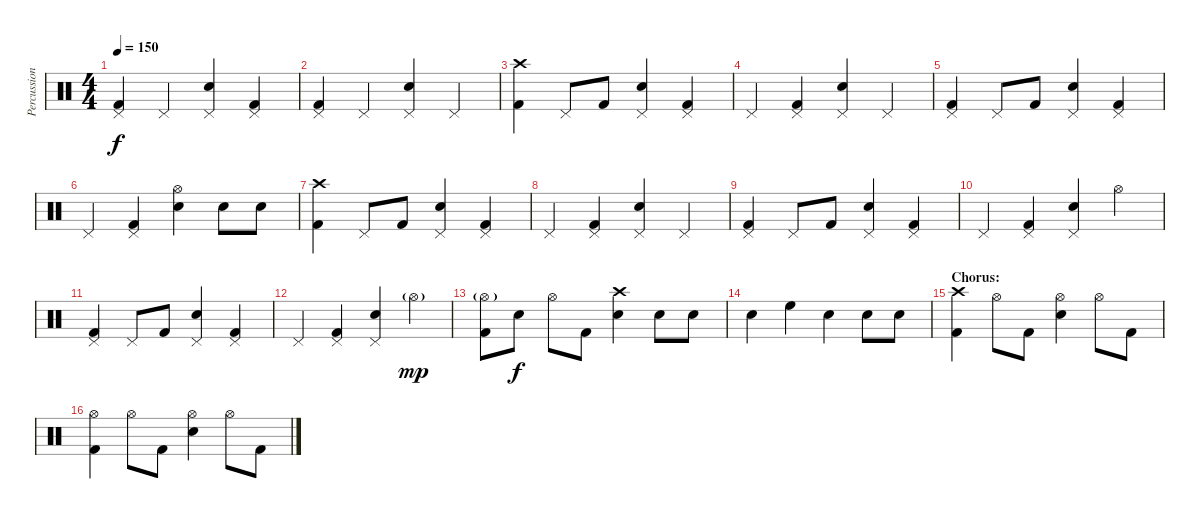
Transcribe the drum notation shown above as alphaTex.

\track ("Percussion" "Percussion") {instrument percussion}
\staff {score}
\articulation defaults
\ts (4 4)
\tempo 150
\clef neutral
\ks c
("Pedal Hi-Hat (hit)" "Kick (hit) 2").4{dy f} "Pedal Hi-Hat (hit)".4 ("Pedal Hi-Hat (hit)" "Electric Snare (hit)").4 ("Pedal Hi-Hat (hit)" "Kick (hit) 2").4 |
("Pedal Hi-Hat (hit)" "Kick (hit) 2").4 "Pedal Hi-Hat (hit)".4 ("Pedal Hi-Hat (hit)" "Electric Snare (hit)").4 "Pedal Hi-Hat (hit)".4 |
("Crash high (hit)" "Kick (hit) 2").4 "Pedal Hi-Hat (hit)".8 "Kick (hit) 2".8 ("Pedal Hi-Hat (hit)" "Electric Snare (hit)").4 ("Pedal Hi-Hat (hit)" "Kick (hit) 2").4 |
"Pedal Hi-Hat (hit)".4 ("Pedal Hi-Hat (hit)" "Kick (hit) 2").4 ("Pedal Hi-Hat (hit)" "Electric Snare (hit)").4 "Pedal Hi-Hat (hit)".4 |
("Pedal Hi-Hat (hit)" "Kick (hit) 2").4 "Pedal Hi-Hat (hit)".8 "Kick (hit) 2".8 ("Pedal Hi-Hat (hit)" "Electric Snare (hit)").4 ("Pedal Hi-Hat (hit)" "Kick (hit) 2").4 |
"Pedal Hi-Hat (hit)".4 ("Pedal Hi-Hat (hit)" "Kick (hit) 2").4 ("Hi-Hat (open)" "Electric Snare (hit)").4 "Electric Snare (hit)".8 "Electric Snare (hit)".8 |
("Crash high (hit)" "Kick (hit) 2").4 "Pedal Hi-Hat (hit)".8 "Kick (hit) 2".8 ("Pedal Hi-Hat (hit)" "Electric Snare (hit)").4 ("Pedal Hi-Hat (hit)" "Kick (hit) 2").4 |
"Pedal Hi-Hat (hit)".4 ("Pedal Hi-Hat (hit)" "Kick (hit) 2").4 ("Pedal Hi-Hat (hit)" "Electric Snare (hit)").4 "Pedal Hi-Hat (hit)".4 |
("Pedal Hi-Hat (hit)" "Kick (hit) 2").4 "Pedal Hi-Hat (hit)".8 "Kick (hit) 2".8 ("Pedal Hi-Hat (hit)" "Electric Snare (hit)").4 ("Pedal Hi-Hat (hit)" "Kick (hit) 2").4 |
"Pedal Hi-Hat (hit)".4 ("Pedal Hi-Hat (hit)" "Kick (hit) 2").4 ("Pedal Hi-Hat (hit)" "Electric Snare (hit)").4 "Hi-Hat (open)".4 |
("Pedal Hi-Hat (hit)" "Kick (hit) 2").4 "Pedal Hi-Hat (hit)".8 "Kick (hit) 2".8 ("Pedal Hi-Hat (hit)" "Electric Snare (hit)").4 ("Pedal Hi-Hat (hit)" "Kick (hit) 2").4 |
"Pedal Hi-Hat (hit)".4 ("Pedal Hi-Hat (hit)" "Kick (hit) 2").4 ("Pedal Hi-Hat (hit)" "Electric Snare (hit)").4 "Hi-Hat (open)"{g}.4{dy mp} |
("Hi-Hat (open)"{g} "Kick (hit) 2").8 "Electric Snare (hit)".8{dy f} "Hi-Hat (open)".8 "Kick (hit) 2".8 ("Crash high (hit)" "Electric Snare (hit)").4 "Electric Snare (hit)".8 "Electric Snare (hit)".8 |
"Electric Snare (hit)".4 "High Floor Tom (hit)".4 "Electric Snare (hit)".4 "Electric Snare (hit)".8 "Electric Snare (hit)".8 |
\section ("" "Chorus:")
("Crash high (hit)" "Kick (hit) 2").4 "Hi-Hat (open)".8 "Kick (hit) 2".8 ("Hi-Hat (open)" "Electric Snare (hit)").4 "Hi-Hat (open)".8 "Kick (hit) 2".8 |
("Hi-Hat (open)" "Kick (hit) 2").4 "Hi-Hat (open)".8 "Kick (hit) 2".8 ("Hi-Hat (open)" "Electric Snare (hit)").4 "Hi-Hat (open)".8 "Kick (hit) 2".8
